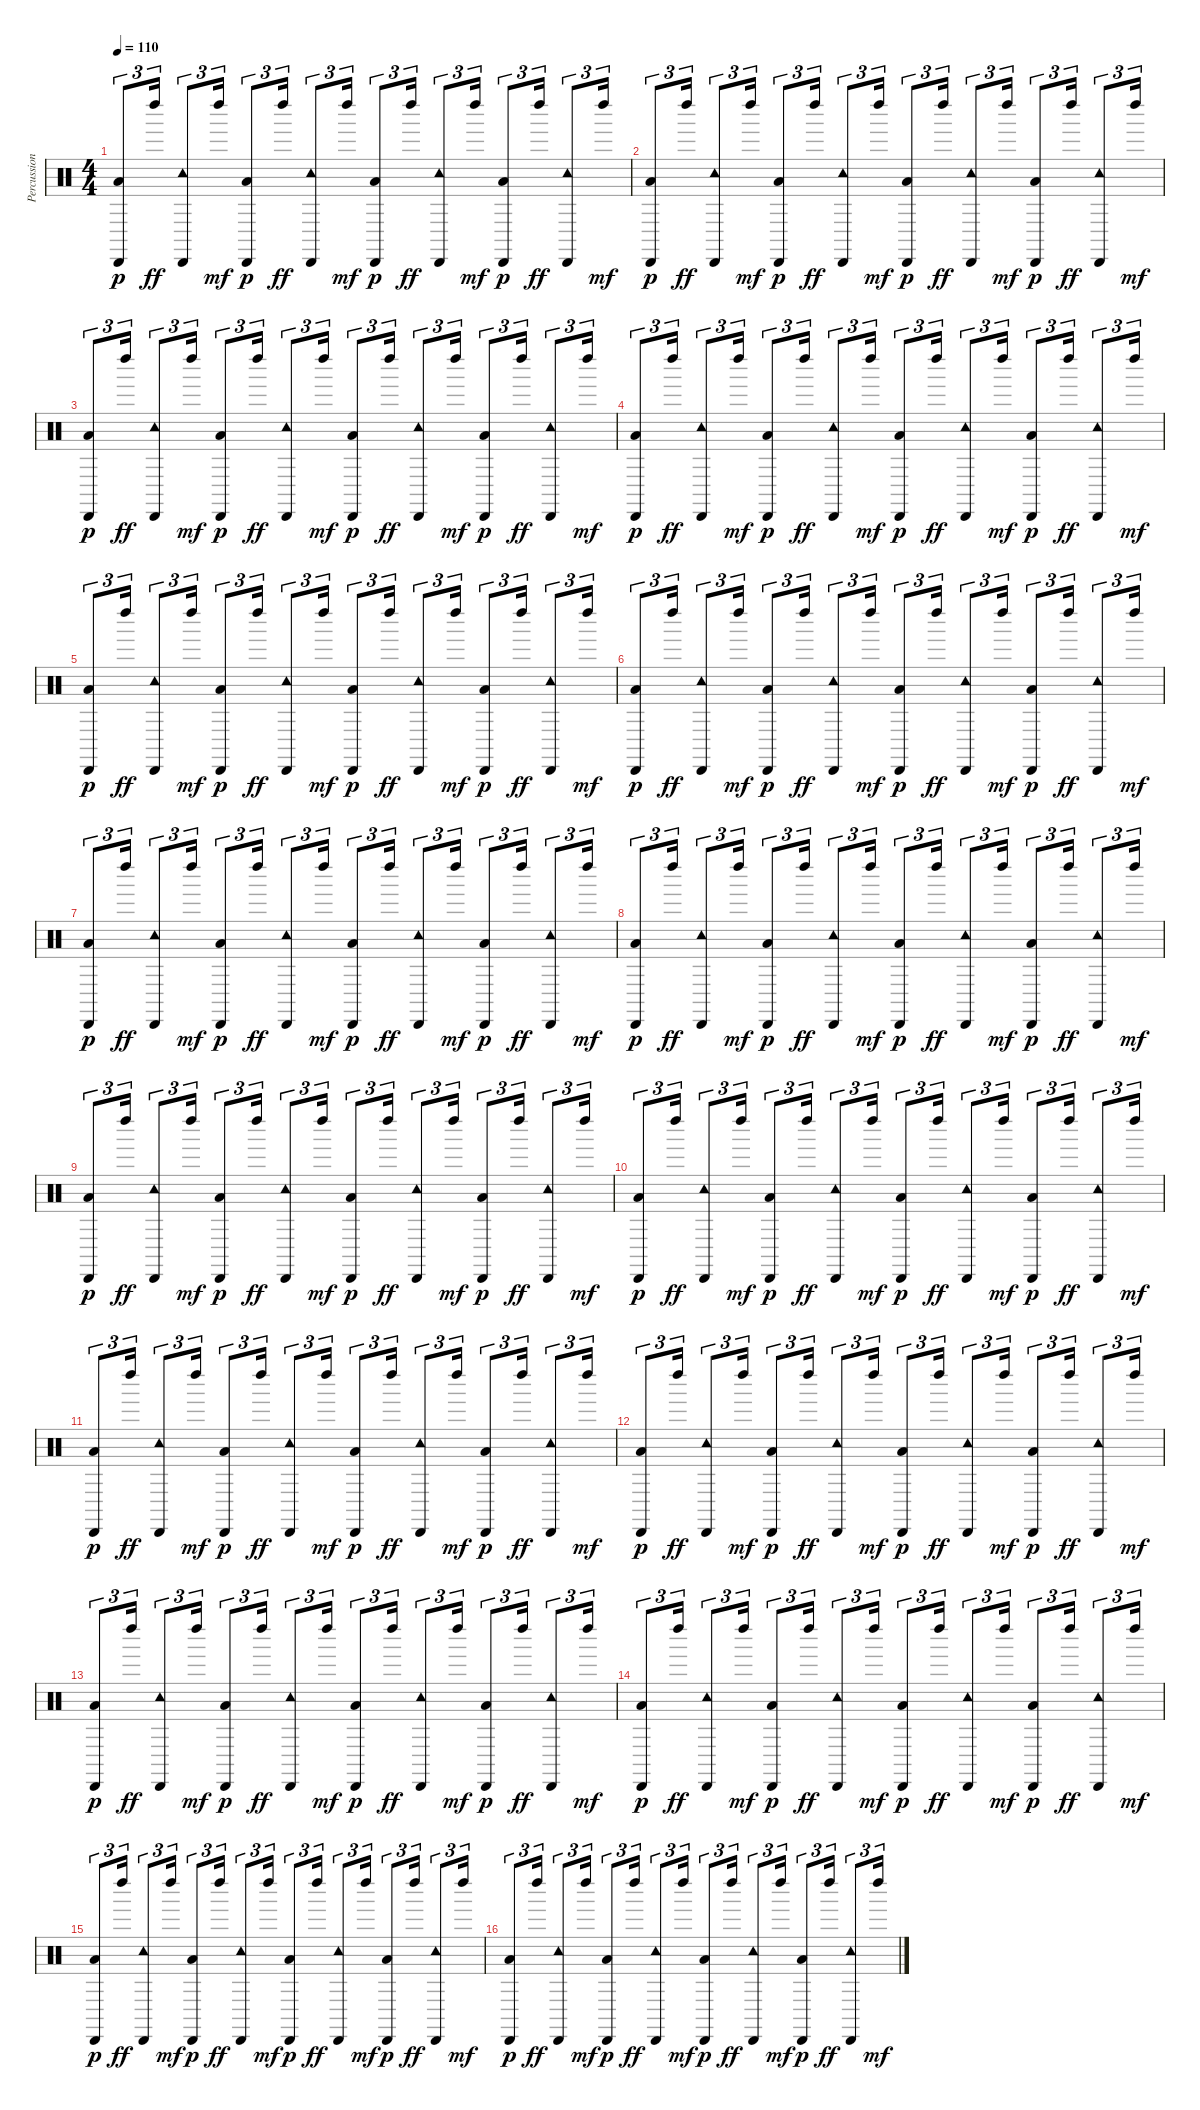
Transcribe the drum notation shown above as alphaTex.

\track ("Percussions" "Percussion") {instrument percussion}
\staff {score}
\articulation defaults
\ts (4 4)
\tempo 110
\clef neutral
\ks c
("Cabasa (hit)" "Low Floor Tom (hit)").8{tu (3 2) dy p volume 11} "Left Maraca (hit)".16{tu (3 2) dy ff} ("Tambourine (hit)" "Cabasa (hit)").8{tu (3 2)} "Left Maraca (hit)".16{tu (3 2) dy mf} ("Cabasa (hit)" "Low Floor Tom (hit)").8{tu (3 2) dy p} "Left Maraca (hit)".16{tu (3 2) dy ff} ("Tambourine (hit)" "Cabasa (hit)").8{tu (3 2)} "Left Maraca (hit)".16{tu (3 2) dy mf} ("Cabasa (hit)" "Low Floor Tom (hit)").8{tu (3 2) dy p} "Left Maraca (hit)".16{tu (3 2) dy ff} ("Tambourine (hit)" "Cabasa (hit)").8{tu (3 2)} "Left Maraca (hit)".16{tu (3 2) dy mf} ("Cabasa (hit)" "Low Floor Tom (hit)").8{tu (3 2) dy p} "Left Maraca (hit)".16{tu (3 2) dy ff} ("Tambourine (hit)" "Cabasa (hit)").8{tu (3 2)} "Left Maraca (hit)".16{tu (3 2) dy mf} |
("Cabasa (hit)" "Low Floor Tom (hit)").8{tu (3 2) dy p} "Left Maraca (hit)".16{tu (3 2) dy ff} ("Tambourine (hit)" "Cabasa (hit)").8{tu (3 2)} "Left Maraca (hit)".16{tu (3 2) dy mf} ("Cabasa (hit)" "Low Floor Tom (hit)").8{tu (3 2) dy p} "Left Maraca (hit)".16{tu (3 2) dy ff} ("Tambourine (hit)" "Cabasa (hit)").8{tu (3 2)} "Left Maraca (hit)".16{tu (3 2) dy mf} ("Cabasa (hit)" "Low Floor Tom (hit)").8{tu (3 2) dy p} "Left Maraca (hit)".16{tu (3 2) dy ff} ("Tambourine (hit)" "Cabasa (hit)").8{tu (3 2)} "Left Maraca (hit)".16{tu (3 2) dy mf} ("Cabasa (hit)" "Low Floor Tom (hit)").8{tu (3 2) dy p} "Left Maraca (hit)".16{tu (3 2) dy ff} ("Tambourine (hit)" "Cabasa (hit)").8{tu (3 2)} "Left Maraca (hit)".16{tu (3 2) dy mf} |
("Cabasa (hit)" "Low Floor Tom (hit)").8{tu (3 2) dy p} "Left Maraca (hit)".16{tu (3 2) dy ff} ("Tambourine (hit)" "Cabasa (hit)").8{tu (3 2)} "Left Maraca (hit)".16{tu (3 2) dy mf} ("Cabasa (hit)" "Low Floor Tom (hit)").8{tu (3 2) dy p} "Left Maraca (hit)".16{tu (3 2) dy ff} ("Tambourine (hit)" "Cabasa (hit)").8{tu (3 2)} "Left Maraca (hit)".16{tu (3 2) dy mf} ("Cabasa (hit)" "Low Floor Tom (hit)").8{tu (3 2) dy p} "Left Maraca (hit)".16{tu (3 2) dy ff} ("Tambourine (hit)" "Cabasa (hit)").8{tu (3 2)} "Left Maraca (hit)".16{tu (3 2) dy mf} ("Cabasa (hit)" "Low Floor Tom (hit)").8{tu (3 2) dy p} "Left Maraca (hit)".16{tu (3 2) dy ff} ("Tambourine (hit)" "Cabasa (hit)").8{tu (3 2)} "Left Maraca (hit)".16{tu (3 2) dy mf} |
("Cabasa (hit)" "Low Floor Tom (hit)").8{tu (3 2) dy p} "Left Maraca (hit)".16{tu (3 2) dy ff} ("Tambourine (hit)" "Cabasa (hit)").8{tu (3 2)} "Left Maraca (hit)".16{tu (3 2) dy mf} ("Cabasa (hit)" "Low Floor Tom (hit)").8{tu (3 2) dy p} "Left Maraca (hit)".16{tu (3 2) dy ff} ("Tambourine (hit)" "Cabasa (hit)").8{tu (3 2)} "Left Maraca (hit)".16{tu (3 2) dy mf} ("Cabasa (hit)" "Low Floor Tom (hit)").8{tu (3 2) dy p} "Left Maraca (hit)".16{tu (3 2) dy ff} ("Tambourine (hit)" "Cabasa (hit)").8{tu (3 2)} "Left Maraca (hit)".16{tu (3 2) dy mf} ("Cabasa (hit)" "Low Floor Tom (hit)").8{tu (3 2) dy p} "Left Maraca (hit)".16{tu (3 2) dy ff} ("Tambourine (hit)" "Cabasa (hit)").8{tu (3 2)} "Left Maraca (hit)".16{tu (3 2) dy mf} |
("Cabasa (hit)" "Low Floor Tom (hit)").8{tu (3 2) dy p} "Left Maraca (hit)".16{tu (3 2) dy ff} ("Tambourine (hit)" "Cabasa (hit)").8{tu (3 2)} "Left Maraca (hit)".16{tu (3 2) dy mf} ("Cabasa (hit)" "Low Floor Tom (hit)").8{tu (3 2) dy p} "Left Maraca (hit)".16{tu (3 2) dy ff} ("Tambourine (hit)" "Cabasa (hit)").8{tu (3 2)} "Left Maraca (hit)".16{tu (3 2) dy mf} ("Cabasa (hit)" "Low Floor Tom (hit)").8{tu (3 2) dy p} "Left Maraca (hit)".16{tu (3 2) dy ff} ("Tambourine (hit)" "Cabasa (hit)").8{tu (3 2)} "Left Maraca (hit)".16{tu (3 2) dy mf} ("Cabasa (hit)" "Low Floor Tom (hit)").8{tu (3 2) dy p} "Left Maraca (hit)".16{tu (3 2) dy ff} ("Tambourine (hit)" "Cabasa (hit)").8{tu (3 2)} "Left Maraca (hit)".16{tu (3 2) dy mf} |
("Cabasa (hit)" "Low Floor Tom (hit)").8{tu (3 2) dy p} "Left Maraca (hit)".16{tu (3 2) dy ff} ("Tambourine (hit)" "Cabasa (hit)").8{tu (3 2)} "Left Maraca (hit)".16{tu (3 2) dy mf} ("Cabasa (hit)" "Low Floor Tom (hit)").8{tu (3 2) dy p} "Left Maraca (hit)".16{tu (3 2) dy ff} ("Tambourine (hit)" "Cabasa (hit)").8{tu (3 2)} "Left Maraca (hit)".16{tu (3 2) dy mf} ("Cabasa (hit)" "Low Floor Tom (hit)").8{tu (3 2) dy p} "Left Maraca (hit)".16{tu (3 2) dy ff} ("Tambourine (hit)" "Cabasa (hit)").8{tu (3 2)} "Left Maraca (hit)".16{tu (3 2) dy mf} ("Cabasa (hit)" "Low Floor Tom (hit)").8{tu (3 2) dy p} "Left Maraca (hit)".16{tu (3 2) dy ff} ("Tambourine (hit)" "Cabasa (hit)").8{tu (3 2)} "Left Maraca (hit)".16{tu (3 2) dy mf} |
("Cabasa (hit)" "Low Floor Tom (hit)").8{tu (3 2) dy p} "Left Maraca (hit)".16{tu (3 2) dy ff} ("Tambourine (hit)" "Cabasa (hit)").8{tu (3 2)} "Left Maraca (hit)".16{tu (3 2) dy mf} ("Cabasa (hit)" "Low Floor Tom (hit)").8{tu (3 2) dy p} "Left Maraca (hit)".16{tu (3 2) dy ff} ("Tambourine (hit)" "Cabasa (hit)").8{tu (3 2)} "Left Maraca (hit)".16{tu (3 2) dy mf} ("Cabasa (hit)" "Low Floor Tom (hit)").8{tu (3 2) dy p} "Left Maraca (hit)".16{tu (3 2) dy ff} ("Tambourine (hit)" "Cabasa (hit)").8{tu (3 2)} "Left Maraca (hit)".16{tu (3 2) dy mf} ("Cabasa (hit)" "Low Floor Tom (hit)").8{tu (3 2) dy p} "Left Maraca (hit)".16{tu (3 2) dy ff} ("Tambourine (hit)" "Cabasa (hit)").8{tu (3 2)} "Left Maraca (hit)".16{tu (3 2) dy mf} |
("Cabasa (hit)" "Low Floor Tom (hit)").8{tu (3 2) dy p} "Left Maraca (hit)".16{tu (3 2) dy ff} ("Tambourine (hit)" "Cabasa (hit)").8{tu (3 2)} "Left Maraca (hit)".16{tu (3 2) dy mf} ("Cabasa (hit)" "Low Floor Tom (hit)").8{tu (3 2) dy p} "Left Maraca (hit)".16{tu (3 2) dy ff} ("Tambourine (hit)" "Cabasa (hit)").8{tu (3 2)} "Left Maraca (hit)".16{tu (3 2) dy mf} ("Cabasa (hit)" "Low Floor Tom (hit)").8{tu (3 2) dy p} "Left Maraca (hit)".16{tu (3 2) dy ff} ("Tambourine (hit)" "Cabasa (hit)").8{tu (3 2)} "Left Maraca (hit)".16{tu (3 2) dy mf} ("Cabasa (hit)" "Low Floor Tom (hit)").8{tu (3 2) dy p} "Left Maraca (hit)".16{tu (3 2) dy ff} ("Tambourine (hit)" "Cabasa (hit)").8{tu (3 2)} "Left Maraca (hit)".16{tu (3 2) dy mf} |
("Cabasa (hit)" "Low Floor Tom (hit)").8{tu (3 2) dy p} "Left Maraca (hit)".16{tu (3 2) dy ff} ("Tambourine (hit)" "Cabasa (hit)").8{tu (3 2)} "Left Maraca (hit)".16{tu (3 2) dy mf} ("Cabasa (hit)" "Low Floor Tom (hit)").8{tu (3 2) dy p} "Left Maraca (hit)".16{tu (3 2) dy ff} ("Tambourine (hit)" "Cabasa (hit)").8{tu (3 2)} "Left Maraca (hit)".16{tu (3 2) dy mf} ("Cabasa (hit)" "Low Floor Tom (hit)").8{tu (3 2) dy p} "Left Maraca (hit)".16{tu (3 2) dy ff} ("Tambourine (hit)" "Cabasa (hit)").8{tu (3 2)} "Left Maraca (hit)".16{tu (3 2) dy mf} ("Cabasa (hit)" "Low Floor Tom (hit)").8{tu (3 2) dy p} "Left Maraca (hit)".16{tu (3 2) dy ff} ("Tambourine (hit)" "Cabasa (hit)").8{tu (3 2)} "Left Maraca (hit)".16{tu (3 2) dy mf} |
("Cabasa (hit)" "Low Floor Tom (hit)").8{tu (3 2) dy p} "Left Maraca (hit)".16{tu (3 2) dy ff} ("Tambourine (hit)" "Cabasa (hit)").8{tu (3 2)} "Left Maraca (hit)".16{tu (3 2) dy mf} ("Cabasa (hit)" "Low Floor Tom (hit)").8{tu (3 2) dy p} "Left Maraca (hit)".16{tu (3 2) dy ff} ("Tambourine (hit)" "Cabasa (hit)").8{tu (3 2)} "Left Maraca (hit)".16{tu (3 2) dy mf} ("Cabasa (hit)" "Low Floor Tom (hit)").8{tu (3 2) dy p} "Left Maraca (hit)".16{tu (3 2) dy ff} ("Tambourine (hit)" "Cabasa (hit)").8{tu (3 2)} "Left Maraca (hit)".16{tu (3 2) dy mf} ("Cabasa (hit)" "Low Floor Tom (hit)").8{tu (3 2) dy p} "Left Maraca (hit)".16{tu (3 2) dy ff} ("Tambourine (hit)" "Cabasa (hit)").8{tu (3 2)} "Left Maraca (hit)".16{tu (3 2) dy mf} |
("Cabasa (hit)" "Low Floor Tom (hit)").8{tu (3 2) dy p} "Left Maraca (hit)".16{tu (3 2) dy ff} ("Tambourine (hit)" "Cabasa (hit)").8{tu (3 2)} "Left Maraca (hit)".16{tu (3 2) dy mf} ("Cabasa (hit)" "Low Floor Tom (hit)").8{tu (3 2) dy p} "Left Maraca (hit)".16{tu (3 2) dy ff} ("Tambourine (hit)" "Cabasa (hit)").8{tu (3 2)} "Left Maraca (hit)".16{tu (3 2) dy mf} ("Cabasa (hit)" "Low Floor Tom (hit)").8{tu (3 2) dy p} "Left Maraca (hit)".16{tu (3 2) dy ff} ("Tambourine (hit)" "Cabasa (hit)").8{tu (3 2)} "Left Maraca (hit)".16{tu (3 2) dy mf} ("Cabasa (hit)" "Low Floor Tom (hit)").8{tu (3 2) dy p} "Left Maraca (hit)".16{tu (3 2) dy ff} ("Tambourine (hit)" "Cabasa (hit)").8{tu (3 2)} "Left Maraca (hit)".16{tu (3 2) dy mf} |
("Cabasa (hit)" "Low Floor Tom (hit)").8{tu (3 2) dy p} "Left Maraca (hit)".16{tu (3 2) dy ff} ("Tambourine (hit)" "Cabasa (hit)").8{tu (3 2)} "Left Maraca (hit)".16{tu (3 2) dy mf} ("Cabasa (hit)" "Low Floor Tom (hit)").8{tu (3 2) dy p} "Left Maraca (hit)".16{tu (3 2) dy ff} ("Tambourine (hit)" "Cabasa (hit)").8{tu (3 2)} "Left Maraca (hit)".16{tu (3 2) dy mf} ("Cabasa (hit)" "Low Floor Tom (hit)").8{tu (3 2) dy p} "Left Maraca (hit)".16{tu (3 2) dy ff} ("Tambourine (hit)" "Cabasa (hit)").8{tu (3 2)} "Left Maraca (hit)".16{tu (3 2) dy mf} ("Cabasa (hit)" "Low Floor Tom (hit)").8{tu (3 2) dy p} "Left Maraca (hit)".16{tu (3 2) dy ff} ("Tambourine (hit)" "Cabasa (hit)").8{tu (3 2)} "Left Maraca (hit)".16{tu (3 2) dy mf} |
("Cabasa (hit)" "Low Floor Tom (hit)").8{tu (3 2) dy p} "Left Maraca (hit)".16{tu (3 2) dy ff} ("Tambourine (hit)" "Cabasa (hit)").8{tu (3 2)} "Left Maraca (hit)".16{tu (3 2) dy mf} ("Cabasa (hit)" "Low Floor Tom (hit)").8{tu (3 2) dy p} "Left Maraca (hit)".16{tu (3 2) dy ff} ("Tambourine (hit)" "Cabasa (hit)").8{tu (3 2)} "Left Maraca (hit)".16{tu (3 2) dy mf} ("Cabasa (hit)" "Low Floor Tom (hit)").8{tu (3 2) dy p} "Left Maraca (hit)".16{tu (3 2) dy ff} ("Tambourine (hit)" "Cabasa (hit)").8{tu (3 2)} "Left Maraca (hit)".16{tu (3 2) dy mf} ("Cabasa (hit)" "Low Floor Tom (hit)").8{tu (3 2) dy p} "Left Maraca (hit)".16{tu (3 2) dy ff} ("Tambourine (hit)" "Cabasa (hit)").8{tu (3 2)} "Left Maraca (hit)".16{tu (3 2) dy mf} |
("Cabasa (hit)" "Low Floor Tom (hit)").8{tu (3 2) dy p} "Left Maraca (hit)".16{tu (3 2) dy ff} ("Tambourine (hit)" "Cabasa (hit)").8{tu (3 2)} "Left Maraca (hit)".16{tu (3 2) dy mf} ("Cabasa (hit)" "Low Floor Tom (hit)").8{tu (3 2) dy p} "Left Maraca (hit)".16{tu (3 2) dy ff} ("Tambourine (hit)" "Cabasa (hit)").8{tu (3 2)} "Left Maraca (hit)".16{tu (3 2) dy mf} ("Cabasa (hit)" "Low Floor Tom (hit)").8{tu (3 2) dy p} "Left Maraca (hit)".16{tu (3 2) dy ff} ("Tambourine (hit)" "Cabasa (hit)").8{tu (3 2)} "Left Maraca (hit)".16{tu (3 2) dy mf} ("Cabasa (hit)" "Low Floor Tom (hit)").8{tu (3 2) dy p} "Left Maraca (hit)".16{tu (3 2) dy ff} ("Tambourine (hit)" "Cabasa (hit)").8{tu (3 2)} "Left Maraca (hit)".16{tu (3 2) dy mf} |
("Cabasa (hit)" "Low Floor Tom (hit)").8{tu (3 2) dy p} "Left Maraca (hit)".16{tu (3 2) dy ff} ("Tambourine (hit)" "Cabasa (hit)").8{tu (3 2)} "Left Maraca (hit)".16{tu (3 2) dy mf} ("Cabasa (hit)" "Low Floor Tom (hit)").8{tu (3 2) dy p} "Left Maraca (hit)".16{tu (3 2) dy ff} ("Tambourine (hit)" "Cabasa (hit)").8{tu (3 2)} "Left Maraca (hit)".16{tu (3 2) dy mf} ("Cabasa (hit)" "Low Floor Tom (hit)").8{tu (3 2) dy p} "Left Maraca (hit)".16{tu (3 2) dy ff} ("Tambourine (hit)" "Cabasa (hit)").8{tu (3 2)} "Left Maraca (hit)".16{tu (3 2) dy mf} ("Cabasa (hit)" "Low Floor Tom (hit)").8{tu (3 2) dy p} "Left Maraca (hit)".16{tu (3 2) dy ff} ("Tambourine (hit)" "Cabasa (hit)").8{tu (3 2)} "Left Maraca (hit)".16{tu (3 2) dy mf} |
("Cabasa (hit)" "Low Floor Tom (hit)").8{tu (3 2) dy p} "Left Maraca (hit)".16{tu (3 2) dy ff} ("Tambourine (hit)" "Cabasa (hit)").8{tu (3 2)} "Left Maraca (hit)".16{tu (3 2) dy mf} ("Cabasa (hit)" "Low Floor Tom (hit)").8{tu (3 2) dy p} "Left Maraca (hit)".16{tu (3 2) dy ff} ("Tambourine (hit)" "Cabasa (hit)").8{tu (3 2)} "Left Maraca (hit)".16{tu (3 2) dy mf} ("Cabasa (hit)" "Low Floor Tom (hit)").8{tu (3 2) dy p} "Left Maraca (hit)".16{tu (3 2) dy ff} ("Tambourine (hit)" "Cabasa (hit)").8{tu (3 2)} "Left Maraca (hit)".16{tu (3 2) dy mf} ("Cabasa (hit)" "Low Floor Tom (hit)").8{tu (3 2) dy p} "Left Maraca (hit)".16{tu (3 2) dy ff} ("Tambourine (hit)" "Cabasa (hit)").8{tu (3 2)} "Left Maraca (hit)".16{tu (3 2) dy mf}
